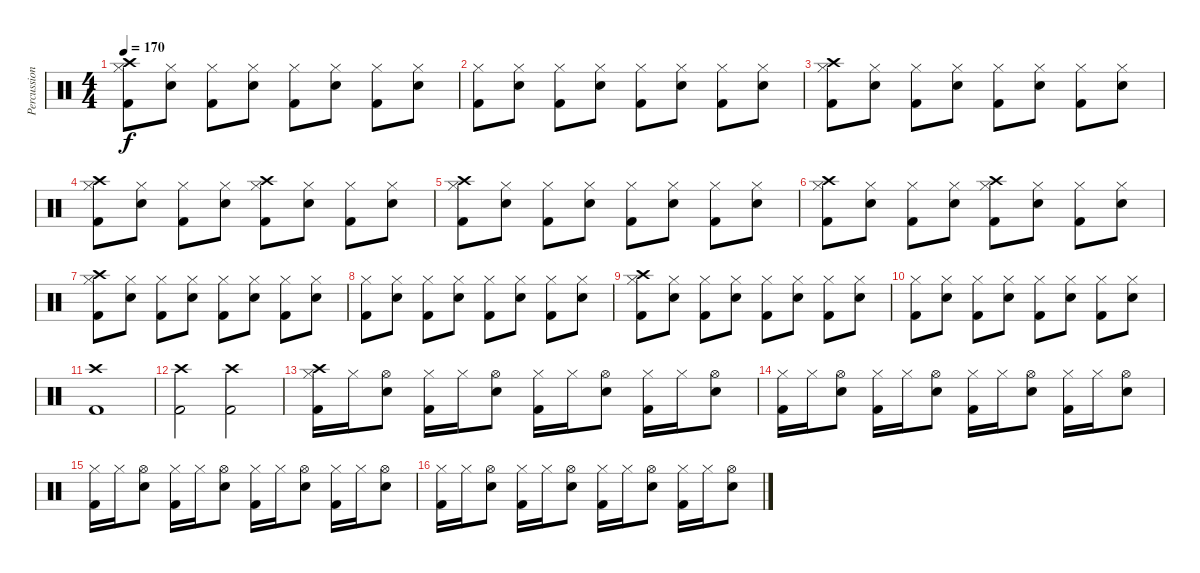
\track ("Percussion" "Percussion") {instrument percussion}
\staff {score}
\articulation defaults
\ts (4 4)
\tempo 170
\clef neutral
\ks c
("Hi-Hat (closed)" "Kick (hit) 2" "Crash high (hit)").8{dy f} ("Hi-Hat (closed)" "Snare (hit) 2").8 ("Hi-Hat (closed)" "Kick (hit) 2").8 ("Hi-Hat (closed)" "Snare (hit) 2").8 ("Hi-Hat (closed)" "Kick (hit) 2").8 ("Hi-Hat (closed)" "Snare (hit) 2").8 ("Hi-Hat (closed)" "Kick (hit) 2").8 ("Hi-Hat (closed)" "Snare (hit) 2").8 |
("Hi-Hat (closed)" "Kick (hit) 2").8 ("Hi-Hat (closed)" "Snare (hit) 2").8 ("Hi-Hat (closed)" "Kick (hit) 2").8 ("Hi-Hat (closed)" "Snare (hit) 2").8 ("Hi-Hat (closed)" "Kick (hit) 2").8 ("Hi-Hat (closed)" "Snare (hit) 2").8 ("Hi-Hat (closed)" "Kick (hit) 2").8 ("Hi-Hat (closed)" "Snare (hit) 2").8 |
("Hi-Hat (closed)" "Kick (hit) 2" "Crash high (hit)").8 ("Hi-Hat (closed)" "Snare (hit) 2").8 ("Hi-Hat (closed)" "Kick (hit) 2").8 ("Hi-Hat (closed)" "Snare (hit) 2").8 ("Hi-Hat (closed)" "Kick (hit) 2").8 ("Hi-Hat (closed)" "Snare (hit) 2").8 ("Hi-Hat (closed)" "Kick (hit) 2").8 ("Hi-Hat (closed)" "Snare (hit) 2").8 |
("Hi-Hat (closed)" "Kick (hit) 2" "Crash high (hit)").8 ("Hi-Hat (closed)" "Snare (hit) 2").8 ("Hi-Hat (closed)" "Kick (hit) 2").8 ("Hi-Hat (closed)" "Snare (hit) 2").8 ("Hi-Hat (closed)" "Kick (hit) 2" "Crash high (hit)").8 ("Hi-Hat (closed)" "Snare (hit) 2").8 ("Hi-Hat (closed)" "Kick (hit) 2").8 ("Hi-Hat (closed)" "Snare (hit) 2").8 |
("Hi-Hat (closed)" "Kick (hit) 2" "Crash high (hit)").8 ("Hi-Hat (closed)" "Snare (hit) 2").8 ("Hi-Hat (closed)" "Kick (hit) 2").8 ("Hi-Hat (closed)" "Snare (hit) 2").8 ("Hi-Hat (closed)" "Kick (hit) 2").8 ("Hi-Hat (closed)" "Snare (hit) 2").8 ("Hi-Hat (closed)" "Kick (hit) 2").8 ("Hi-Hat (closed)" "Snare (hit) 2").8 |
("Hi-Hat (closed)" "Kick (hit) 2" "Crash high (hit)").8 ("Hi-Hat (closed)" "Snare (hit) 2").8 ("Hi-Hat (closed)" "Kick (hit) 2").8 ("Hi-Hat (closed)" "Snare (hit) 2").8 ("Hi-Hat (closed)" "Kick (hit) 2" "Crash high (hit)").8 ("Hi-Hat (closed)" "Snare (hit) 2").8 ("Hi-Hat (closed)" "Kick (hit) 2").8 ("Hi-Hat (closed)" "Snare (hit) 2").8 |
("Hi-Hat (closed)" "Kick (hit) 2" "Crash high (hit)").8 ("Hi-Hat (closed)" "Snare (hit) 2").8 ("Hi-Hat (closed)" "Kick (hit) 2").8 ("Hi-Hat (closed)" "Snare (hit) 2").8 ("Hi-Hat (closed)" "Kick (hit) 2").8 ("Hi-Hat (closed)" "Snare (hit) 2").8 ("Hi-Hat (closed)" "Kick (hit) 2").8 ("Hi-Hat (closed)" "Snare (hit) 2").8 |
("Hi-Hat (closed)" "Kick (hit) 2").8 ("Hi-Hat (closed)" "Snare (hit) 2").8 ("Hi-Hat (closed)" "Kick (hit) 2").8 ("Hi-Hat (closed)" "Snare (hit) 2").8 ("Hi-Hat (closed)" "Kick (hit) 2").8 ("Hi-Hat (closed)" "Snare (hit) 2").8 ("Hi-Hat (closed)" "Kick (hit) 2").8 ("Hi-Hat (closed)" "Snare (hit) 2").8 |
("Hi-Hat (closed)" "Kick (hit) 2" "Crash high (hit)").8 ("Hi-Hat (closed)" "Snare (hit) 2").8 ("Hi-Hat (closed)" "Kick (hit) 2").8 ("Hi-Hat (closed)" "Snare (hit) 2").8 ("Hi-Hat (closed)" "Kick (hit) 2").8 ("Hi-Hat (closed)" "Snare (hit) 2").8 ("Hi-Hat (closed)" "Kick (hit) 2").8 ("Hi-Hat (closed)" "Snare (hit) 2").8 |
("Hi-Hat (closed)" "Kick (hit) 2").8 ("Hi-Hat (closed)" "Snare (hit) 2").8 ("Hi-Hat (closed)" "Kick (hit) 2").8 ("Hi-Hat (closed)" "Snare (hit) 2").8 ("Hi-Hat (closed)" "Kick (hit) 2").8 ("Hi-Hat (closed)" "Snare (hit) 2").8 ("Hi-Hat (closed)" "Kick (hit) 2").8 ("Hi-Hat (closed)" "Snare (hit) 2").8 |
("Crash high (hit)" "Kick (hit) 2").1 |
("Kick (hit) 2" "Crash high (hit)").2 ("Kick (hit) 2" "Crash high (hit)").2 |
("Hi-Hat (closed)" "Kick (hit) 2" "Crash high (hit)").16 "Hi-Hat (closed)".16 ("Hi-Hat (open)" "Snare (hit) 2").8 ("Hi-Hat (closed)" "Kick (hit) 2").16 "Hi-Hat (closed)".16 ("Hi-Hat (open)" "Snare (hit) 2").8 ("Hi-Hat (closed)" "Kick (hit) 2").16 "Hi-Hat (closed)".16 ("Hi-Hat (open)" "Snare (hit) 2").8 ("Hi-Hat (closed)" "Kick (hit) 2").16 "Hi-Hat (closed)".16 ("Hi-Hat (open)" "Snare (hit) 2").8 |
("Hi-Hat (closed)" "Kick (hit) 2").16 "Hi-Hat (closed)".16 ("Hi-Hat (open)" "Snare (hit) 2").8 ("Hi-Hat (closed)" "Kick (hit) 2").16 "Hi-Hat (closed)".16 ("Hi-Hat (open)" "Snare (hit) 2").8 ("Hi-Hat (closed)" "Kick (hit) 2").16 "Hi-Hat (closed)".16 ("Hi-Hat (open)" "Snare (hit) 2").8 ("Hi-Hat (closed)" "Kick (hit) 2").16 "Hi-Hat (closed)".16 ("Hi-Hat (open)" "Snare (hit) 2").8 |
("Hi-Hat (closed)" "Kick (hit) 2").16 "Hi-Hat (closed)".16 ("Hi-Hat (open)" "Snare (hit) 2").8 ("Hi-Hat (closed)" "Kick (hit) 2").16 "Hi-Hat (closed)".16 ("Hi-Hat (open)" "Snare (hit) 2").8 ("Hi-Hat (closed)" "Kick (hit) 2").16 "Hi-Hat (closed)".16 ("Hi-Hat (open)" "Snare (hit) 2").8 ("Hi-Hat (closed)" "Kick (hit) 2").16 "Hi-Hat (closed)".16 ("Hi-Hat (open)" "Snare (hit) 2").8 |
("Hi-Hat (closed)" "Kick (hit) 2").16 "Hi-Hat (closed)".16 ("Hi-Hat (open)" "Snare (hit) 2").8 ("Hi-Hat (closed)" "Kick (hit) 2").16 "Hi-Hat (closed)".16 ("Hi-Hat (open)" "Snare (hit) 2").8 ("Hi-Hat (closed)" "Kick (hit) 2").16 "Hi-Hat (closed)".16 ("Hi-Hat (open)" "Snare (hit) 2").8 ("Hi-Hat (closed)" "Kick (hit) 2").16 "Hi-Hat (closed)".16 ("Hi-Hat (open)" "Snare (hit) 2").8
